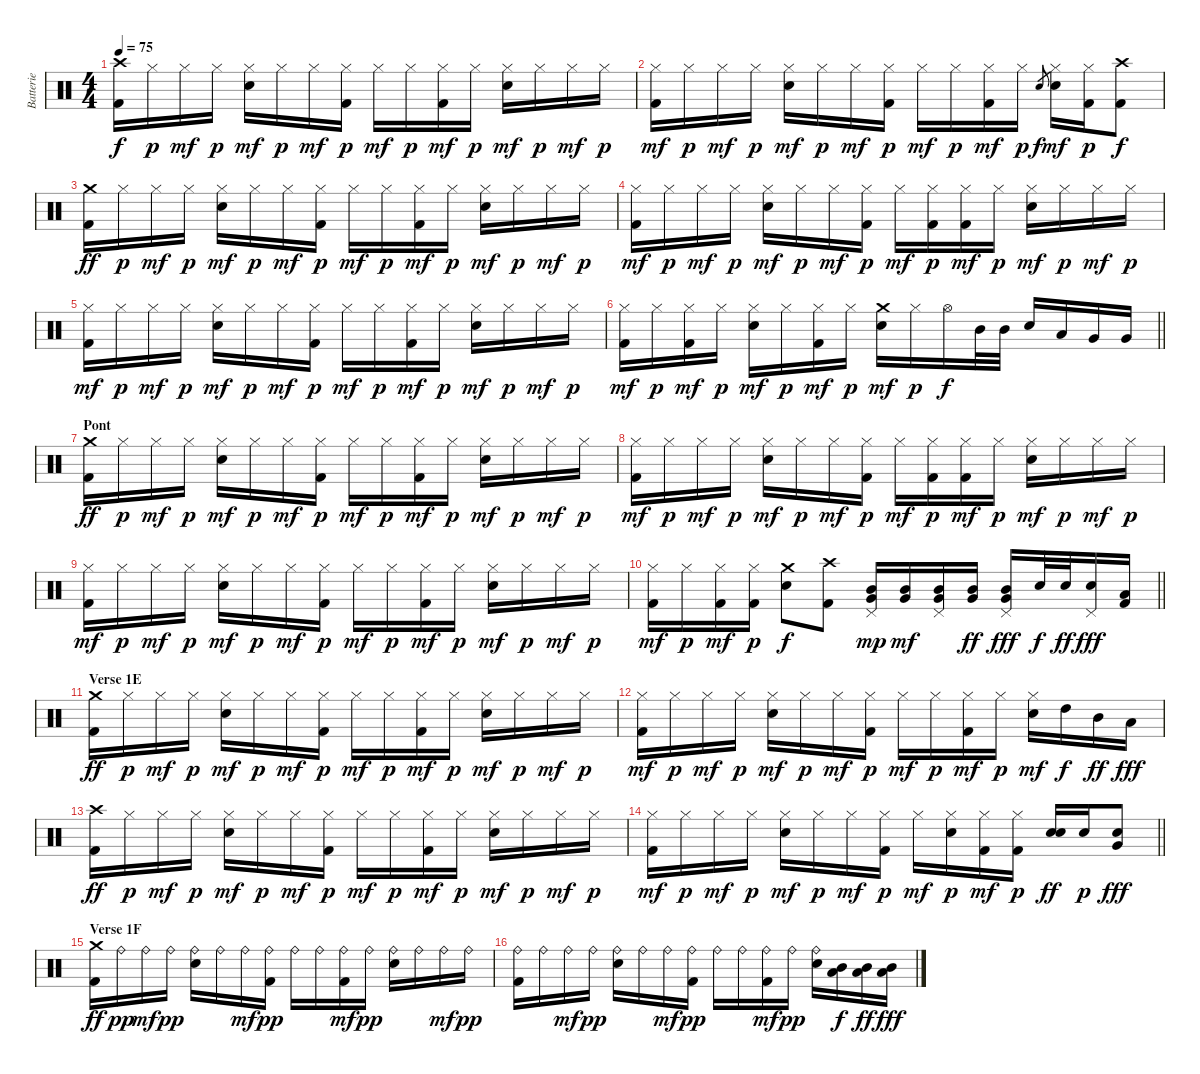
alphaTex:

\track ("Batterie" "Batterie") {instrument percussion}
\staff {score}
\articulation defaults
\ts (4 4)
\tempo 75
\clef neutral
\ks c
("Crash high (hit)" "Kick (hit) 2").16{dy f} "Hi-Hat (closed)".16{dy p} "Hi-Hat (closed)".16{dy mf} "Hi-Hat (closed)".16{dy p} ("Hi-Hat (closed)" "Electric Snare (hit)").16{dy mf} "Hi-Hat (closed)".16{dy p} "Hi-Hat (closed)".16{dy mf} ("Hi-Hat (closed)" "Kick (hit) 2").16{dy p} "Hi-Hat (closed)".16{dy mf} "Hi-Hat (closed)".16{dy p} ("Hi-Hat (closed)" "Kick (hit) 2").16{dy mf} "Hi-Hat (closed)".16{dy p} ("Hi-Hat (closed)" "Electric Snare (hit)").16{dy mf} "Hi-Hat (closed)".16{dy p} "Hi-Hat (closed)".16{dy mf} "Hi-Hat (closed)".16{dy p} |
("Hi-Hat (closed)" "Kick (hit) 2").16{dy mf} "Hi-Hat (closed)".16{dy p} "Hi-Hat (closed)".16{dy mf} "Hi-Hat (closed)".16{dy p} ("Hi-Hat (closed)" "Electric Snare (hit)").16{dy mf} "Hi-Hat (closed)".16{dy p} "Hi-Hat (closed)".16{dy mf} ("Hi-Hat (closed)" "Kick (hit) 2").16{dy p} "Hi-Hat (closed)".16{dy mf} "Hi-Hat (closed)".16{dy p} ("Hi-Hat (closed)" "Kick (hit) 2").16{dy mf} "Hi-Hat (closed)".16{dy p} "Electric Snare (hit)".8{gr dy f} ("Hi-Hat (closed)" "Electric Snare (hit)").16{dy mf} ("Hi-Hat (closed)" "Kick (hit) 2").16{dy p} ("Crash high (hit)" "Kick (hit) 2").8{dy f} |
("Crash medium (hit)" "Kick (hit) 2").16{dy ff} "Hi-Hat (closed)".16{dy p} "Hi-Hat (closed)".16{dy mf} "Hi-Hat (closed)".16{dy p} ("Hi-Hat (closed)" "Electric Snare (hit)").16{dy mf} "Hi-Hat (closed)".16{dy p} "Hi-Hat (closed)".16{dy mf} ("Hi-Hat (closed)" "Kick (hit) 2").16{dy p} "Hi-Hat (closed)".16{dy mf} "Hi-Hat (closed)".16{dy p} ("Hi-Hat (closed)" "Kick (hit) 2").16{dy mf} "Hi-Hat (closed)".16{dy p} ("Hi-Hat (closed)" "Electric Snare (hit)").16{dy mf} "Hi-Hat (closed)".16{dy p} "Hi-Hat (closed)".16{dy mf} "Hi-Hat (closed)".16{dy p} |
("Hi-Hat (closed)" "Kick (hit) 2").16{dy mf} "Hi-Hat (closed)".16{dy p} "Hi-Hat (closed)".16{dy mf} "Hi-Hat (closed)".16{dy p} ("Hi-Hat (closed)" "Electric Snare (hit)").16{dy mf} "Hi-Hat (closed)".16{dy p} "Hi-Hat (closed)".16{dy mf} ("Hi-Hat (closed)" "Kick (hit) 2").16{dy p} "Hi-Hat (closed)".16{dy mf} ("Hi-Hat (closed)" "Kick (hit) 2").16{dy p} ("Hi-Hat (closed)" "Kick (hit) 2").16{dy mf} "Hi-Hat (closed)".16{dy p} ("Hi-Hat (closed)" "Electric Snare (hit)").16{dy mf} "Hi-Hat (closed)".16{dy p} "Hi-Hat (closed)".16{dy mf} "Hi-Hat (closed)".16{dy p} |
("Hi-Hat (closed)" "Kick (hit) 2").16{dy mf} "Hi-Hat (closed)".16{dy p} "Hi-Hat (closed)".16{dy mf} "Hi-Hat (closed)".16{dy p} ("Hi-Hat (closed)" "Electric Snare (hit)").16{dy mf} "Hi-Hat (closed)".16{dy p} "Hi-Hat (closed)".16{dy mf} ("Hi-Hat (closed)" "Kick (hit) 2").16{dy p} "Hi-Hat (closed)".16{dy mf} "Hi-Hat (closed)".16{dy p} ("Hi-Hat (closed)" "Kick (hit) 2").16{dy mf} "Hi-Hat (closed)".16{dy p} ("Hi-Hat (closed)" "Electric Snare (hit)").16{dy mf} "Hi-Hat (closed)".16{dy p} "Hi-Hat (closed)".16{dy mf} "Hi-Hat (closed)".16{dy p} |
\barLineRight lightlight
("Hi-Hat (closed)" "Kick (hit) 2").16{dy mf} "Hi-Hat (closed)".16{dy p} ("Hi-Hat (closed)" "Kick (hit) 2").16{dy mf} "Hi-Hat (closed)".16{dy p} ("Hi-Hat (closed)" "Electric Snare (hit)").16{dy mf} "Hi-Hat (closed)".16{dy p} ("Hi-Hat (closed)" "Kick (hit) 2").16{dy mf} "Hi-Hat (closed)".16{dy p} ("Crash medium (hit)" "Electric Snare (hit)").16{dy mf} "Hi-Hat (closed)".16{dy p} "Hi-Hat (open)".16{dy f} "Mid Tom (hit)".32 "Mid Tom (hit)".32 "Electric Snare (hit)".16 "Low Tom (hit)".16 "Very Low Tom (hit)".16 "Very Low Tom (hit)".16 |
\section ("" "Pont")
("Crash medium (hit)" "Kick (hit) 2").16{dy ff} "Hi-Hat (closed)".16{dy p} "Hi-Hat (closed)".16{dy mf} "Hi-Hat (closed)".16{dy p} ("Hi-Hat (closed)" "Electric Snare (hit)").16{dy mf} "Hi-Hat (closed)".16{dy p} "Hi-Hat (closed)".16{dy mf} ("Hi-Hat (closed)" "Kick (hit) 2").16{dy p} "Hi-Hat (closed)".16{dy mf} "Hi-Hat (closed)".16{dy p} ("Hi-Hat (closed)" "Kick (hit) 2").16{dy mf} "Hi-Hat (closed)".16{dy p} ("Hi-Hat (closed)" "Electric Snare (hit)").16{dy mf} "Hi-Hat (closed)".16{dy p} "Hi-Hat (closed)".16{dy mf} "Hi-Hat (closed)".16{dy p} |
("Hi-Hat (closed)" "Kick (hit) 2").16{dy mf} "Hi-Hat (closed)".16{dy p} "Hi-Hat (closed)".16{dy mf} "Hi-Hat (closed)".16{dy p} ("Hi-Hat (closed)" "Electric Snare (hit)").16{dy mf} "Hi-Hat (closed)".16{dy p} "Hi-Hat (closed)".16{dy mf} ("Hi-Hat (closed)" "Kick (hit) 2").16{dy p} "Hi-Hat (closed)".16{dy mf} ("Hi-Hat (closed)" "Kick (hit) 2").16{dy p} ("Hi-Hat (closed)" "Kick (hit) 2").16{dy mf} "Hi-Hat (closed)".16{dy p} ("Hi-Hat (closed)" "Electric Snare (hit)").16{dy mf} "Hi-Hat (closed)".16{dy p} "Hi-Hat (closed)".16{dy mf} "Hi-Hat (closed)".16{dy p} |
("Hi-Hat (closed)" "Kick (hit) 2").16{dy mf} "Hi-Hat (closed)".16{dy p} "Hi-Hat (closed)".16{dy mf} "Hi-Hat (closed)".16{dy p} ("Hi-Hat (closed)" "Electric Snare (hit)").16{dy mf} "Hi-Hat (closed)".16{dy p} "Hi-Hat (closed)".16{dy mf} ("Hi-Hat (closed)" "Kick (hit) 2").16{dy p} "Hi-Hat (closed)".16{dy mf} "Hi-Hat (closed)".16{dy p} ("Hi-Hat (closed)" "Kick (hit) 2").16{dy mf} "Hi-Hat (closed)".16{dy p} ("Hi-Hat (closed)" "Electric Snare (hit)").16{dy mf} "Hi-Hat (closed)".16{dy p} "Hi-Hat (closed)".16{dy mf} "Hi-Hat (closed)".16{dy p} |
\barLineRight lightlight
("Hi-Hat (closed)" "Kick (hit) 2").16{dy mf} "Hi-Hat (closed)".16{dy p} ("Hi-Hat (closed)" "Kick (hit) 2").16{dy mf} ("Hi-Hat (closed)" "Kick (hit) 2").16{dy p} ("Crash medium (hit)" "Electric Snare (hit)").8{dy f} ("Crash high (hit)" "Kick (hit) 2").8 ("Pedal Hi-Hat (hit)" "Mid Tom (hit)" "Very Low Tom (hit)").16{dy mp} ("Mid Tom (hit)" "Very Low Tom (hit)").16{dy mf} ("Pedal Hi-Hat (hit)" "Mid Tom (hit)" "Very Low Tom (hit)").16 ("Mid Tom (hit)" "Very Low Tom (hit)").16{dy ff} ("Pedal Hi-Hat (hit)" "Mid Tom (hit)" "Very Low Tom (hit)").16{dy fff} "Electric Snare (hit)".32{dy f} "Electric Snare (hit)".32{dy ff} ("Pedal Hi-Hat (hit)" "Electric Snare (hit)").16{dy fff} ("Low Tom (hit)" "Kick (hit) 2").16 |
\section ("" "Verse 1E")
("Crash medium (hit)" "Kick (hit) 2").16{dy ff} "Hi-Hat (closed)".16{dy p} "Hi-Hat (closed)".16{dy mf} "Hi-Hat (closed)".16{dy p} ("Hi-Hat (closed)" "Electric Snare (hit)").16{dy mf} "Hi-Hat (closed)".16{dy p} "Hi-Hat (closed)".16{dy mf} ("Hi-Hat (closed)" "Kick (hit) 2").16{dy p} "Hi-Hat (closed)".16{dy mf} "Hi-Hat (closed)".16{dy p} ("Hi-Hat (closed)" "Kick (hit) 2").16{dy mf} "Hi-Hat (closed)".16{dy p} ("Hi-Hat (closed)" "Electric Snare (hit)").16{dy mf} "Hi-Hat (closed)".16{dy p} "Hi-Hat (closed)".16{dy mf} "Hi-Hat (closed)".16{dy p} |
("Hi-Hat (closed)" "Kick (hit) 2").16{dy mf} "Hi-Hat (closed)".16{dy p} "Hi-Hat (closed)".16{dy mf} "Hi-Hat (closed)".16{dy p} ("Hi-Hat (closed)" "Electric Snare (hit)").16{dy mf} "Hi-Hat (closed)".16{dy p} "Hi-Hat (closed)".16{dy mf} ("Hi-Hat (closed)" "Kick (hit) 2").16{dy p} "Hi-Hat (closed)".16{dy mf} "Hi-Hat (closed)".16{dy p} ("Hi-Hat (closed)" "Kick (hit) 2").16{dy mf} "Hi-Hat (closed)".16{dy p} ("Hi-Hat (closed)" "Electric Snare (hit)").16{dy mf} "High Tom (hit)".16{dy f} "Mid Tom (hit)".16{dy ff} "Low Tom (hit)".16{dy fff} |
("Crash high (hit)" "Kick (hit) 2").16{dy ff} "Hi-Hat (closed)".16{dy p} "Hi-Hat (closed)".16{dy mf} "Hi-Hat (closed)".16{dy p} ("Hi-Hat (closed)" "Electric Snare (hit)").16{dy mf} "Hi-Hat (closed)".16{dy p} "Hi-Hat (closed)".16{dy mf} ("Hi-Hat (closed)" "Kick (hit) 2").16{dy p} "Hi-Hat (closed)".16{dy mf} "Hi-Hat (closed)".16{dy p} ("Hi-Hat (closed)" "Kick (hit) 2").16{dy mf} "Hi-Hat (closed)".16{dy p} ("Hi-Hat (closed)" "Electric Snare (hit)").16{dy mf} "Hi-Hat (closed)".16{dy p} "Hi-Hat (closed)".16{dy mf} "Hi-Hat (closed)".16{dy p} |
\barLineRight lightlight
("Hi-Hat (closed)" "Kick (hit) 2").16{dy mf} "Hi-Hat (closed)".16{dy p} "Hi-Hat (closed)".16{dy mf} "Hi-Hat (closed)".16{dy p} ("Hi-Hat (closed)" "Electric Snare (hit)").16{dy mf} "Hi-Hat (closed)".16{dy p} "Hi-Hat (closed)".16{dy mf} ("Hi-Hat (closed)" "Kick (hit) 2").16{dy p} "Hi-Hat (closed)".16{dy mf} ("Hi-Hat (closed)" "Electric Snare (hit)").16{dy p} ("Hi-Hat (closed)" "Kick (hit) 2").16{dy mf} ("Hi-Hat (closed)" "Kick (hit) 2").16{dy p} ("Electric Snare (hit)" "Electric Snare (hit)").16{dy ff} "Electric Snare (hit)".16{dy p} ("Electric Snare (hit)" "Very Low Tom (hit)").8{dy fff} |
\section ("" "Verse 1F")
("Crash medium (hit)" "Kick (hit) 2").16{dy ff} "Ride (bell)".16{dy pp} "Ride (bell)".16{dy mf} "Ride (bell)".16{dy pp} ("Ride (bell)" "Electric Snare (hit)").16 "Ride (bell)".16 "Ride (bell)".16{dy mf} ("Ride (bell)" "Kick (hit) 2").16{dy pp} "Ride (bell)".16 "Ride (bell)".16 ("Ride (bell)" "Kick (hit) 2").16{dy mf} "Ride (bell)".16{dy pp} ("Ride (bell)" "Electric Snare (hit)").16 "Ride (bell)".16 "Ride (bell)".16{dy mf} "Ride (bell)".16{dy pp} |
("Ride (bell)" "Kick (hit) 2").16 "Ride (bell)".16 "Ride (bell)".16{dy mf} "Ride (bell)".16{dy pp} ("Ride (bell)" "Electric Snare (hit)").16 "Ride (bell)".16 "Ride (bell)".16{dy mf} ("Ride (bell)" "Kick (hit) 2").16{dy pp} "Ride (bell)".16 "Ride (bell)".16 ("Ride (bell)" "Kick (hit) 2").16{dy mf} "Ride (bell)".16{dy pp} ("Ride (bell)" "Electric Snare (hit)").16 ("Mid Tom (hit)" "Low Tom (hit)").16{dy f} ("Mid Tom (hit)" "Low Tom (hit)").16{dy ff} ("Mid Tom (hit)" "Low Tom (hit)").16{dy fff}
